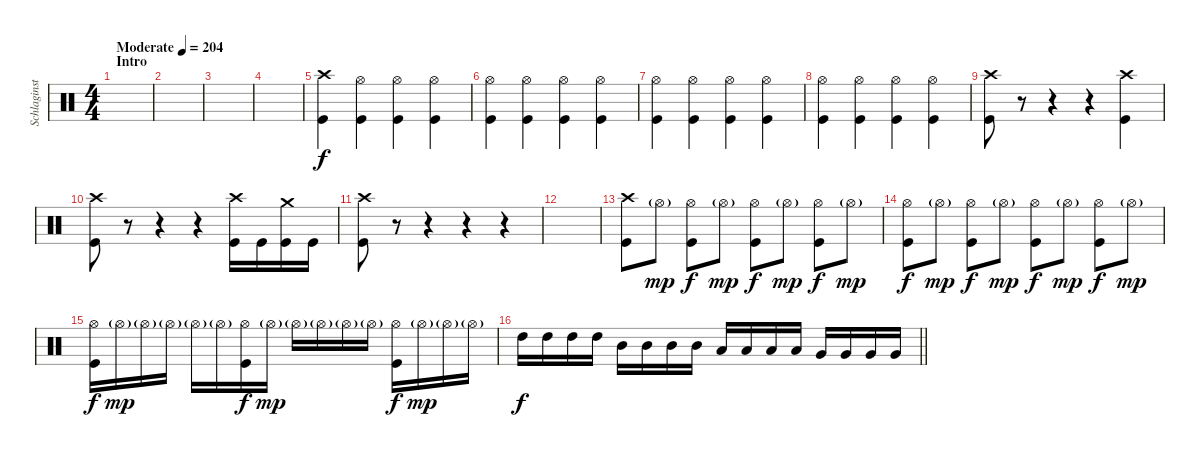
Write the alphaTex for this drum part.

\track ("Schlaginstrumente - Auswahl" "Schlaginst") {instrument percussion}
\staff {score}
\articulation defaults
\ts (4 4)
\section ("" "Intro")
\tempo (204 "Moderate")
\clef neutral
\ks c
|
|
|
|
("Kick (hit)" "Crash high (hit)").4 ("Kick (hit)" "Hi-Hat (open)").4 ("Kick (hit)" "Hi-Hat (open)").4 ("Kick (hit)" "Hi-Hat (open)").4 |
("Kick (hit)" "Hi-Hat (open)").4 ("Kick (hit)" "Hi-Hat (open)").4 ("Kick (hit)" "Hi-Hat (open)").4 ("Kick (hit)" "Hi-Hat (open)").4 |
("Kick (hit)" "Hi-Hat (open)").4 ("Kick (hit)" "Hi-Hat (open)").4 ("Kick (hit)" "Hi-Hat (open)").4 ("Kick (hit)" "Hi-Hat (open)").4 |
("Kick (hit)" "Hi-Hat (open)").4 ("Kick (hit)" "Hi-Hat (open)").4 ("Kick (hit)" "Hi-Hat (open)").4 ("Kick (hit)" "Hi-Hat (open)").4 |
("Kick (hit)" "Crash high (hit)").8 r.8 r.4 r.4 ("Kick (hit)" "Crash high (hit)").4 |
("Kick (hit)" "Crash high (hit)").8 r.8 r.4 r.4 ("Kick (hit)" "Crash high (hit)").16 "Kick (hit)".16 ("Kick (hit)" "Crash medium (hit)").16 "Kick (hit)".16 |
("Kick (hit)" "Crash high (hit)").8 r.8 r.4 r.4 r.4 |
|
("Kick (hit)" "Crash high (hit)").8 "Hi-Hat (open)"{g}.8{dy mp} ("Kick (hit)" "Hi-Hat (open)").8{dy f} "Hi-Hat (open)"{g}.8{dy mp} ("Kick (hit)" "Hi-Hat (open)").8{dy f} "Hi-Hat (open)"{g}.8{dy mp} ("Kick (hit)" "Hi-Hat (open)").8{dy f} "Hi-Hat (open)"{g}.8{dy mp} |
("Kick (hit)" "Hi-Hat (open)").8{dy f} "Hi-Hat (open)"{g}.8{dy mp} ("Kick (hit)" "Hi-Hat (open)").8{dy f} "Hi-Hat (open)"{g}.8{dy mp} ("Kick (hit)" "Hi-Hat (open)").8{dy f} "Hi-Hat (open)"{g}.8{dy mp} ("Kick (hit)" "Hi-Hat (open)").8{dy f} "Hi-Hat (open)"{g}.8{dy mp} |
("Hi-Hat (open)" "Kick (hit)").16{dy f} "Hi-Hat (open)"{g}.16{dy mp} "Hi-Hat (open)"{g}.16 "Hi-Hat (open)"{g}.16 "Hi-Hat (open)"{g}.16 "Hi-Hat (open)"{g}.16 ("Hi-Hat (open)" "Kick (hit)").16{dy f} "Hi-Hat (open)"{g}.16{dy mp} "Hi-Hat (open)"{g}.16 "Hi-Hat (open)"{g}.16 "Hi-Hat (open)"{g}.16 "Hi-Hat (open)"{g}.16 ("Hi-Hat (open)" "Kick (hit)").16{dy f} "Hi-Hat (open)"{g}.16{dy mp} "Hi-Hat (open)"{g}.16 "Hi-Hat (open)"{g}.16 |
\barLineRight lightlight "High Tom (hit)".16{dy f} "High Tom (hit)".16 "High Tom (hit)".16 "High Tom (hit)".16 "Mid Tom (hit)".16 "Mid Tom (hit)".16 "Mid Tom (hit)".16 "Mid Tom (hit)".16 "Low Tom (hit)".16 "Low Tom (hit)".16 "Low Tom (hit)".16 "Low Tom (hit)".16 "Very Low Tom (hit)".16 "Very Low Tom (hit)".16 "Very Low Tom (hit)".16 "Very Low Tom (hit)".16
